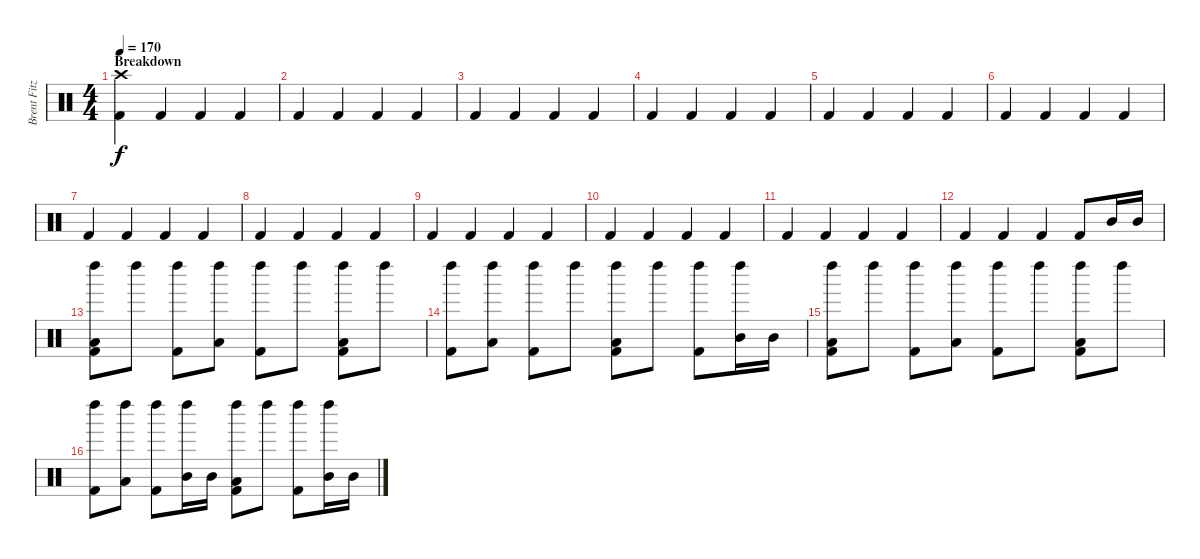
\track ("Brent Fitz" "Brent Fitz") {instrument percussion}
\staff {score}
\articulation defaults
\ts (4 4)
\section ("" "Breakdown")
\tempo 170
\clef neutral
\ks c
("Crash high (hit)" "Kick (hit) 2").4{dy f} "Kick (hit) 2".4 "Kick (hit) 2".4 "Kick (hit) 2".4 |
"Kick (hit) 2".4 "Kick (hit) 2".4 "Kick (hit) 2".4 "Kick (hit) 2".4 |
"Kick (hit) 2".4 "Kick (hit) 2".4 "Kick (hit) 2".4 "Kick (hit) 2".4 |
"Kick (hit) 2".4 "Kick (hit) 2".4 "Kick (hit) 2".4 "Kick (hit) 2".4 |
"Kick (hit) 2".4 "Kick (hit) 2".4 "Kick (hit) 2".4 "Kick (hit) 2".4 |
"Kick (hit) 2".4 "Kick (hit) 2".4 "Kick (hit) 2".4 "Kick (hit) 2".4 |
"Kick (hit) 2".4 "Kick (hit) 2".4 "Kick (hit) 2".4 "Kick (hit) 2".4 |
"Kick (hit) 2".4 "Kick (hit) 2".4 "Kick (hit) 2".4 "Kick (hit) 2".4 |
"Kick (hit) 2".4 "Kick (hit) 2".4 "Kick (hit) 2".4 "Kick (hit) 2".4 |
"Kick (hit) 2".4 "Kick (hit) 2".4 "Kick (hit) 2".4 "Kick (hit) 2".4 |
"Kick (hit) 2".4 "Kick (hit) 2".4 "Kick (hit) 2".4 "Kick (hit) 2".4 |
"Kick (hit) 2".4 "Kick (hit) 2".4 "Kick (hit) 2".4 "Kick (hit) 2".8 "Mid Tom (hit)".16 "Mid Tom (hit)".16 |
("Left Maraca (hit)" "Low Tom (hit)" "Kick (hit) 2").8 "Left Maraca (hit)".8 ("Left Maraca (hit)" "Kick (hit) 2").8 ("Left Maraca (hit)" "Low Tom (hit)").8 ("Left Maraca (hit)" "Kick (hit) 2").8 "Left Maraca (hit)".8 ("Left Maraca (hit)" "Low Tom (hit)" "Kick (hit) 2").8 "Left Maraca (hit)".8 |
("Left Maraca (hit)" "Kick (hit) 2").8 ("Left Maraca (hit)" "Low Tom (hit)").8 ("Left Maraca (hit)" "Kick (hit) 2").8 "Left Maraca (hit)".8 ("Left Maraca (hit)" "Low Tom (hit)" "Kick (hit) 2").8 "Left Maraca (hit)".8 ("Left Maraca (hit)" "Kick (hit) 2").8 ("Left Maraca (hit)" "Mid Tom (hit)").16 "Mid Tom (hit)".16 |
("Left Maraca (hit)" "Low Tom (hit)" "Kick (hit) 2").8 "Left Maraca (hit)".8 ("Left Maraca (hit)" "Kick (hit) 2").8 ("Left Maraca (hit)" "Low Tom (hit)").8 ("Left Maraca (hit)" "Kick (hit) 2").8 "Left Maraca (hit)".8 ("Left Maraca (hit)" "Low Tom (hit)" "Kick (hit) 2").8 "Left Maraca (hit)".8 |
("Left Maraca (hit)" "Kick (hit) 2").8 ("Left Maraca (hit)" "Low Tom (hit)").8 ("Left Maraca (hit)" "Kick (hit) 2").8 ("Left Maraca (hit)" "Mid Tom (hit)").16 "Mid Tom (hit)".16 ("Left Maraca (hit)" "Low Tom (hit)" "Kick (hit) 2").8 "Left Maraca (hit)".8 ("Left Maraca (hit)" "Kick (hit) 2").8 ("Left Maraca (hit)" "Mid Tom (hit)").16 "Mid Tom (hit)".16
